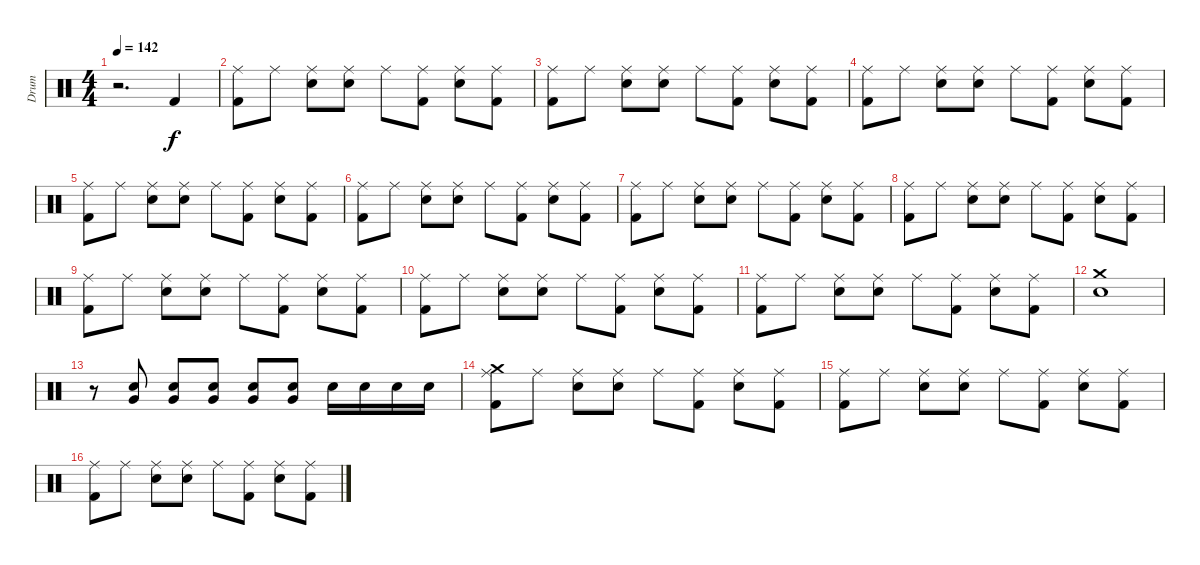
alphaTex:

\track ("Drum" "Drum") {instrument percussion}
\staff {score}
\articulation defaults
\ts (4 4)
\tempo 142
\clef neutral
\ks c
r.2{d dy f} "Kick (hit) 2".4 |
("Kick (hit) 2" "Ride (middle)").8 "Ride (middle)".8 ("Electric Snare (hit)" "Ride (middle)").8 ("Electric Snare (hit)" "Ride (middle)").8 "Ride (middle)".8 ("Ride (middle)" "Kick (hit) 2").8 ("Ride (middle)" "Electric Snare (hit)").8 ("Ride (middle)" "Kick (hit) 2").8 |
("Ride (middle)" "Kick (hit) 2").8 "Ride (middle)".8 ("Electric Snare (hit)" "Ride (middle)").8 ("Electric Snare (hit)" "Ride (middle)").8 "Ride (middle)".8 ("Ride (middle)" "Kick (hit) 2").8 ("Ride (middle)" "Electric Snare (hit)").8 ("Ride (middle)" "Kick (hit) 2").8 |
("Ride (middle)" "Kick (hit) 2").8 "Ride (middle)".8 ("Electric Snare (hit)" "Ride (middle)").8 ("Electric Snare (hit)" "Ride (middle)").8 "Ride (middle)".8 ("Ride (middle)" "Kick (hit) 2").8 ("Ride (middle)" "Electric Snare (hit)").8 ("Ride (middle)" "Kick (hit) 2").8 |
("Ride (middle)" "Kick (hit) 2").8 "Ride (middle)".8 ("Electric Snare (hit)" "Ride (middle)").8 ("Electric Snare (hit)" "Ride (middle)").8 "Ride (middle)".8 ("Ride (middle)" "Kick (hit) 2").8 ("Ride (middle)" "Electric Snare (hit)").8 ("Ride (middle)" "Kick (hit) 2").8 |
("Ride (middle)" "Kick (hit) 2").8 "Ride (middle)".8 ("Electric Snare (hit)" "Ride (middle)").8 ("Electric Snare (hit)" "Ride (middle)").8 "Ride (middle)".8 ("Ride (middle)" "Kick (hit) 2").8 ("Ride (middle)" "Electric Snare (hit)").8 ("Ride (middle)" "Kick (hit) 2").8 |
("Ride (middle)" "Kick (hit) 2").8 "Ride (middle)".8 ("Electric Snare (hit)" "Ride (middle)").8 ("Electric Snare (hit)" "Ride (middle)").8 "Ride (middle)".8 ("Ride (middle)" "Kick (hit) 2").8 ("Ride (middle)" "Electric Snare (hit)").8 ("Ride (middle)" "Kick (hit) 2").8 |
("Ride (middle)" "Kick (hit) 2").8 "Ride (middle)".8 ("Electric Snare (hit)" "Ride (middle)").8 ("Electric Snare (hit)" "Ride (middle)").8 "Ride (middle)".8 ("Ride (middle)" "Kick (hit) 2").8 ("Ride (middle)" "Electric Snare (hit)").8 ("Ride (middle)" "Kick (hit) 2").8 |
("Ride (middle)" "Kick (hit) 2").8 "Ride (middle)".8 ("Electric Snare (hit)" "Ride (middle)").8 ("Electric Snare (hit)" "Ride (middle)").8 "Ride (middle)".8 ("Ride (middle)" "Kick (hit) 2").8 ("Ride (middle)" "Electric Snare (hit)").8 ("Ride (middle)" "Kick (hit) 2").8 |
("Ride (middle)" "Kick (hit) 2").8 "Ride (middle)".8 ("Electric Snare (hit)" "Ride (middle)").8 ("Electric Snare (hit)" "Ride (middle)").8 "Ride (middle)".8 ("Ride (middle)" "Kick (hit) 2").8 ("Ride (middle)" "Electric Snare (hit)").8 ("Ride (middle)" "Kick (hit) 2").8 |
("Ride (middle)" "Kick (hit) 2").8 "Ride (middle)".8 ("Electric Snare (hit)" "Ride (middle)").8 ("Electric Snare (hit)" "Ride (middle)").8 "Ride (middle)".8 ("Ride (middle)" "Kick (hit) 2").8 ("Ride (middle)" "Electric Snare (hit)").8 ("Ride (middle)" "Kick (hit) 2").8 |
("Crash medium (hit)" "Electric Snare (hit)").1 |
r.8 ("Electric Snare (hit)" "Very Low Tom (hit)").8 ("Electric Snare (hit)" "Very Low Tom (hit)").8 ("Electric Snare (hit)" "Very Low Tom (hit)").8 ("Electric Snare (hit)" "Very Low Tom (hit)").8 ("Electric Snare (hit)" "Very Low Tom (hit)").8 "Electric Snare (hit)".16 "Electric Snare (hit)".16 "Electric Snare (hit)".16 "Electric Snare (hit)".16 |
("Crash medium (hit)" "Ride (middle)" "Kick (hit) 2").8 "Ride (middle)".8 ("Electric Snare (hit)" "Ride (middle)").8 ("Electric Snare (hit)" "Ride (middle)").8 "Ride (middle)".8 ("Ride (middle)" "Kick (hit) 2").8 ("Ride (middle)" "Electric Snare (hit)").8 ("Ride (middle)" "Kick (hit) 2").8 |
("Ride (middle)" "Kick (hit) 2").8 "Ride (middle)".8 ("Electric Snare (hit)" "Ride (middle)").8 ("Electric Snare (hit)" "Ride (middle)").8 "Ride (middle)".8 ("Ride (middle)" "Kick (hit) 2").8 ("Ride (middle)" "Electric Snare (hit)").8 ("Ride (middle)" "Kick (hit) 2").8 |
("Ride (middle)" "Kick (hit) 2").8 "Ride (middle)".8 ("Electric Snare (hit)" "Ride (middle)").8 ("Electric Snare (hit)" "Ride (middle)").8 "Ride (middle)".8 ("Ride (middle)" "Kick (hit) 2").8 ("Ride (middle)" "Electric Snare (hit)").8 ("Ride (middle)" "Kick (hit) 2").8
